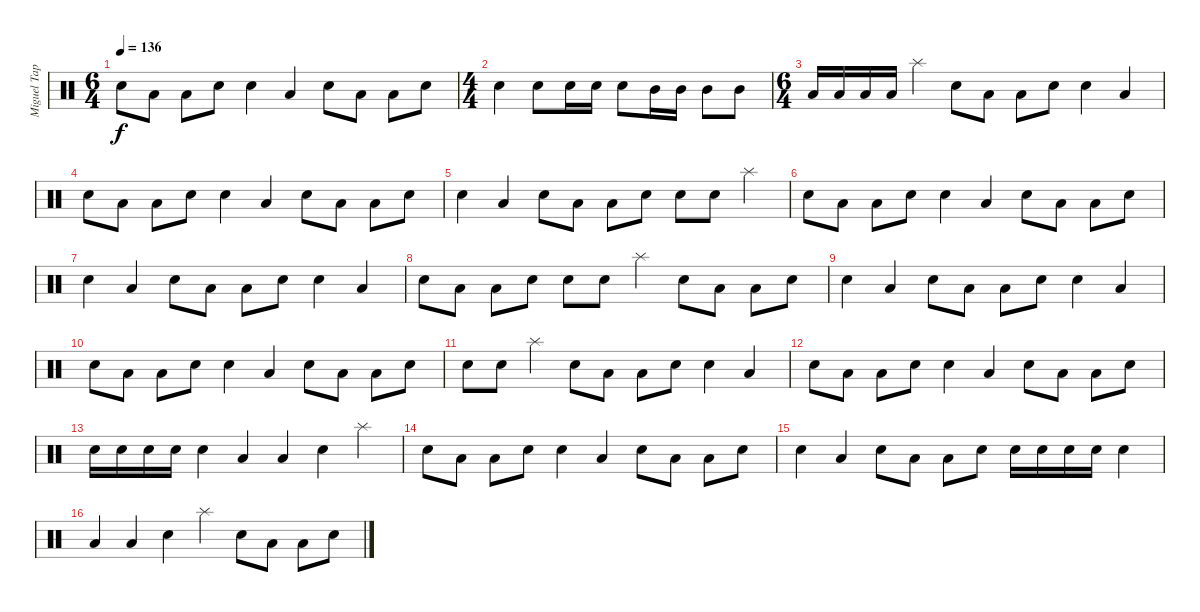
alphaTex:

\track ("Miguel Tapia (Bateria)" "Miguel Tap") {instrument percussion}
\staff {score}
\articulation defaults
\ts (6 4)
\tempo 136
\clef neutral
\ks c "Snare (hit) 2".8{dy f} "Low Tom (hit)".8 "Low Tom (hit)".8 "Snare (hit) 2".8 "Snare (hit) 2".4 "Low Tom (hit)".4 "Snare (hit) 2".8 "Low Tom (hit)".8 "Low Tom (hit)".8 "Snare (hit) 2".8
|
\ts (4 4)
"Snare (hit) 2".4 "Snare (hit) 2".8 "Snare (hit) 2".16 "Snare (hit) 2".16 "Snare (hit) 2".8 "Mid Tom (hit)".16 "Mid Tom (hit)".16 "Mid Tom (hit)".8 "Mid Tom (hit)".8 |
\ts (6 4)
"Low Tom (hit)".16 "Low Tom (hit)".16 "Low Tom (hit)".16 "Low Tom (hit)".16 "Splash (hit)".4 "Snare (hit) 2".8 "Low Tom (hit)".8 "Low Tom (hit)".8 "Snare (hit) 2".8 "Snare (hit) 2".4 "Low Tom (hit)".4 |
"Snare (hit) 2".8 "Low Tom (hit)".8 "Low Tom (hit)".8 "Snare (hit) 2".8 "Snare (hit) 2".4 "Low Tom (hit)".4 "Snare (hit) 2".8 "Low Tom (hit)".8 "Low Tom (hit)".8 "Snare (hit) 2".8 |
"Snare (hit) 2".4 "Low Tom (hit)".4 "Snare (hit) 2".8 "Low Tom (hit)".8 "Low Tom (hit)".8 "Snare (hit) 2".8 "Snare (hit) 2".8 "Snare (hit) 2".8 "Splash (hit)".4 |
"Snare (hit) 2".8 "Low Tom (hit)".8 "Low Tom (hit)".8 "Snare (hit) 2".8 "Snare (hit) 2".4 "Low Tom (hit)".4 "Snare (hit) 2".8 "Low Tom (hit)".8 "Low Tom (hit)".8 "Snare (hit) 2".8 |
"Snare (hit) 2".4 "Low Tom (hit)".4 "Snare (hit) 2".8 "Low Tom (hit)".8 "Low Tom (hit)".8 "Snare (hit) 2".8 "Snare (hit) 2".4 "Low Tom (hit)".4 |
"Snare (hit) 2".8 "Low Tom (hit)".8 "Low Tom (hit)".8 "Snare (hit) 2".8 "Snare (hit) 2".8 "Snare (hit) 2".8 "Splash (hit)".4 "Snare (hit) 2".8 "Low Tom (hit)".8 "Low Tom (hit)".8 "Snare (hit) 2".8 |
"Snare (hit) 2".4 "Low Tom (hit)".4 "Snare (hit) 2".8 "Low Tom (hit)".8 "Low Tom (hit)".8 "Snare (hit) 2".8 "Snare (hit) 2".4 "Low Tom (hit)".4 |
"Snare (hit) 2".8 "Low Tom (hit)".8 "Low Tom (hit)".8 "Snare (hit) 2".8 "Snare (hit) 2".4 "Low Tom (hit)".4 "Snare (hit) 2".8 "Low Tom (hit)".8 "Low Tom (hit)".8 "Snare (hit) 2".8 |
"Snare (hit) 2".8 "Snare (hit) 2".8 "Splash (hit)".4 "Snare (hit) 2".8 "Low Tom (hit)".8 "Low Tom (hit)".8 "Snare (hit) 2".8 "Snare (hit) 2".4 "Low Tom (hit)".4 |
"Snare (hit) 2".8 "Low Tom (hit)".8 "Low Tom (hit)".8 "Snare (hit) 2".8 "Snare (hit) 2".4 "Low Tom (hit)".4 "Snare (hit) 2".8 "Low Tom (hit)".8 "Low Tom (hit)".8 "Snare (hit) 2".8 |
"Snare (hit) 2".16 "Snare (hit) 2".16 "Snare (hit) 2".16 "Snare (hit) 2".16 "Snare (hit) 2".4 "Low Tom (hit)".4 "Low Tom (hit)".4 "Snare (hit) 2".4 "Splash (hit)".4 |
"Snare (hit) 2".8 "Low Tom (hit)".8 "Low Tom (hit)".8 "Snare (hit) 2".8 "Snare (hit) 2".4 "Low Tom (hit)".4 "Snare (hit) 2".8 "Low Tom (hit)".8 "Low Tom (hit)".8 "Snare (hit) 2".8 |
"Snare (hit) 2".4 "Low Tom (hit)".4 "Snare (hit) 2".8 "Low Tom (hit)".8 "Low Tom (hit)".8 "Snare (hit) 2".8 "Snare (hit) 2".16 "Snare (hit) 2".16 "Snare (hit) 2".16 "Snare (hit) 2".16 "Snare (hit) 2".4 |
"Low Tom (hit)".4 "Low Tom (hit)".4 "Snare (hit) 2".4 "Splash (hit)".4 "Snare (hit) 2".8 "Low Tom (hit)".8 "Low Tom (hit)".8 "Snare (hit) 2".8
